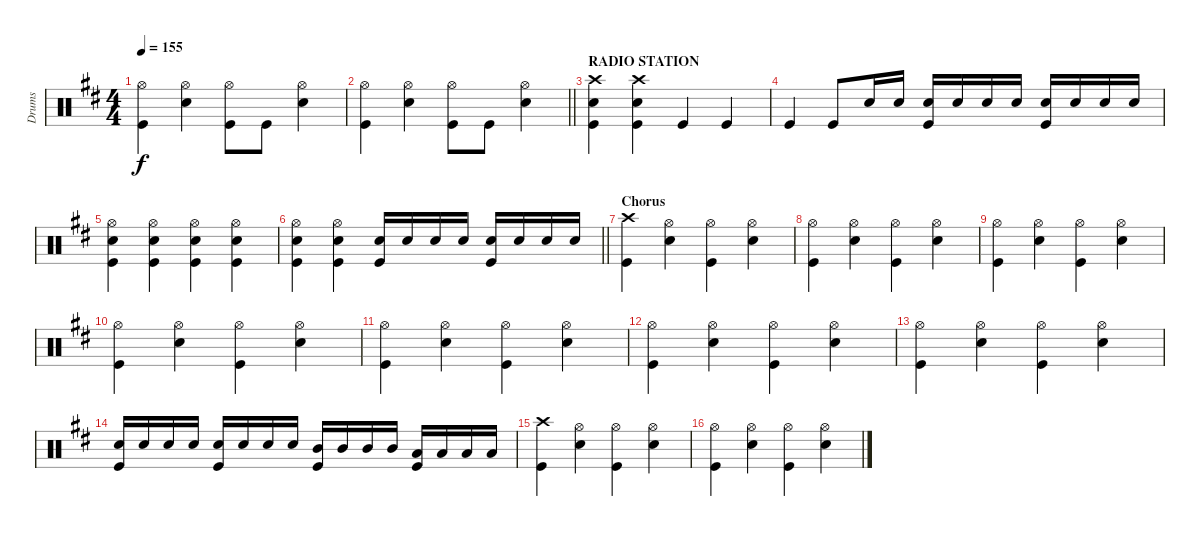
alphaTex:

\track ("Drums" "Drums") {instrument percussion}
\staff {score}
\articulation defaults
\ts (4 4)
\tempo 155
\clef neutral
\ks d
("Hi-Hat (open)" "Kick (hit)").4{dy f} ("Hi-Hat (open)" "Snare (hit) 2").4 ("Hi-Hat (open)" "Kick (hit)").8 "Kick (hit)".8 ("Hi-Hat (open)" "Snare (hit) 2").4 |
\barLineRight lightlight
("Hi-Hat (open)" "Kick (hit)").4 ("Hi-Hat (open)" "Snare (hit) 2").4 ("Hi-Hat (open)" "Kick (hit)").8 "Kick (hit)".8 ("Hi-Hat (open)" "Snare (hit) 2").4 |
\section ("" "RADIO STATION")
("Crash high (hit)" "Snare (hit) 2" "Kick (hit)").4 ("Crash high (hit)" "Snare (hit) 2" "Kick (hit)").4 "Kick (hit)".4 "Kick (hit)".4 |
"Kick (hit)".4 "Kick (hit)".8 "Snare (hit) 2".16 "Snare (hit) 2".16 ("Snare (hit) 2" "Kick (hit)").16 "Snare (hit) 2".16 "Snare (hit) 2".16 "Snare (hit) 2".16 ("Snare (hit) 2" "Kick (hit)").16 "Snare (hit) 2".16 "Snare (hit) 2".16 "Snare (hit) 2".16 |
("Hi-Hat (open)" "Snare (hit) 2" "Kick (hit)").4 ("Hi-Hat (open)" "Snare (hit) 2" "Kick (hit)").4 ("Hi-Hat (open)" "Snare (hit) 2" "Kick (hit)").4 ("Hi-Hat (open)" "Snare (hit) 2" "Kick (hit)").4 |
\barLineRight lightlight
("Hi-Hat (open)" "Snare (hit) 2" "Kick (hit)").4 ("Hi-Hat (open)" "Snare (hit) 2" "Kick (hit)").4 ("Snare (hit) 2" "Kick (hit)").16 "Snare (hit) 2".16 "Snare (hit) 2".16 "Snare (hit) 2".16 ("Snare (hit) 2" "Kick (hit)").16 "Snare (hit) 2".16 "Snare (hit) 2".16 "Snare (hit) 2".16 |
\section ("" "Chorus")
("Crash high (hit)" "Kick (hit)").4 ("Hi-Hat (open)" "Snare (hit) 2").4 ("Hi-Hat (open)" "Kick (hit)").4 ("Hi-Hat (open)" "Snare (hit) 2").4 |
("Hi-Hat (open)" "Kick (hit)").4 ("Hi-Hat (open)" "Snare (hit) 2").4 ("Hi-Hat (open)" "Kick (hit)").4 ("Hi-Hat (open)" "Snare (hit) 2").4 |
("Hi-Hat (open)" "Kick (hit)").4 ("Hi-Hat (open)" "Snare (hit) 2").4 ("Hi-Hat (open)" "Kick (hit)").4 ("Hi-Hat (open)" "Snare (hit) 2").4 |
("Hi-Hat (open)" "Kick (hit)").4 ("Hi-Hat (open)" "Snare (hit) 2").4 ("Hi-Hat (open)" "Kick (hit)").4 ("Hi-Hat (open)" "Snare (hit) 2").4 |
("Hi-Hat (open)" "Kick (hit)").4 ("Hi-Hat (open)" "Snare (hit) 2").4 ("Hi-Hat (open)" "Kick (hit)").4 ("Hi-Hat (open)" "Snare (hit) 2").4 |
("Hi-Hat (open)" "Kick (hit)").4 ("Hi-Hat (open)" "Snare (hit) 2").4 ("Hi-Hat (open)" "Kick (hit)").4 ("Hi-Hat (open)" "Snare (hit) 2").4 |
("Hi-Hat (open)" "Kick (hit)").4 ("Hi-Hat (open)" "Snare (hit) 2").4 ("Hi-Hat (open)" "Kick (hit)").4 ("Hi-Hat (open)" "Snare (hit) 2").4 |
("Snare (hit) 2" "Kick (hit)").16 "Snare (hit) 2".16 "Snare (hit) 2".16 "Snare (hit) 2".16 ("Snare (hit) 2" "Kick (hit)").16 "Snare (hit) 2".16 "Snare (hit) 2".16 "Snare (hit) 2".16 ("Mid Tom (hit)" "Kick (hit)").16 "Mid Tom (hit)".16 "Mid Tom (hit)".16 "Mid Tom (hit)".16 ("Low Tom (hit)" "Kick (hit)").16 "Low Tom (hit)".16 "Low Tom (hit)".16 "Low Tom (hit)".16 |
("Crash high (hit)" "Kick (hit)").4 ("Hi-Hat (open)" "Snare (hit) 2").4 ("Hi-Hat (open)" "Kick (hit)").4 ("Hi-Hat (open)" "Snare (hit) 2").4 |
("Hi-Hat (open)" "Kick (hit)").4 ("Hi-Hat (open)" "Snare (hit) 2").4 ("Hi-Hat (open)" "Kick (hit)").4 ("Hi-Hat (open)" "Snare (hit) 2").4
